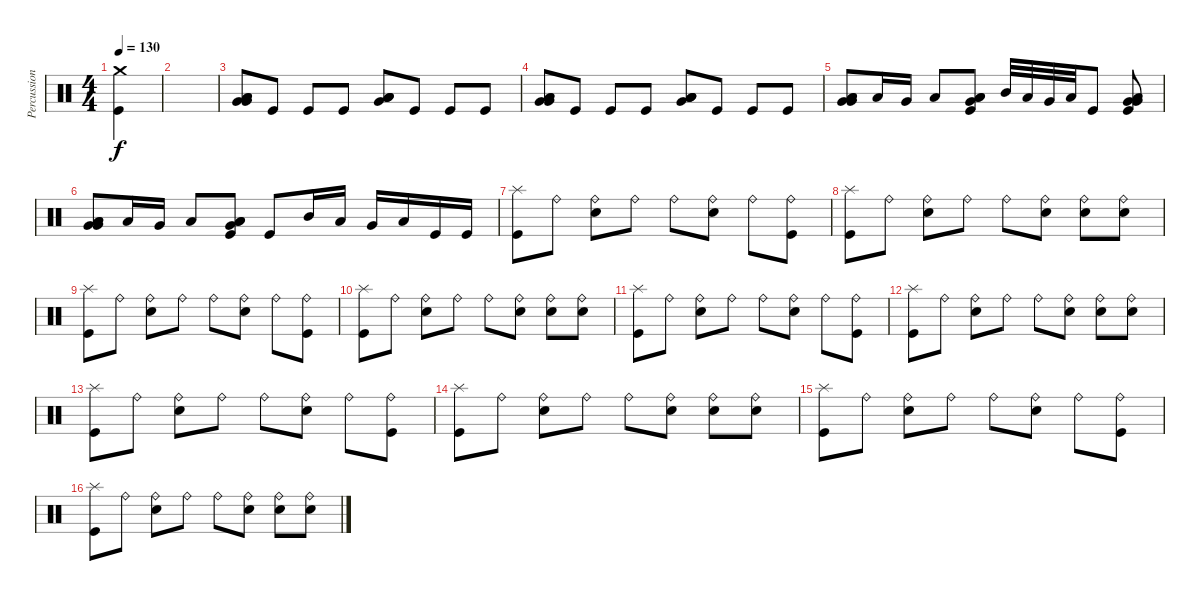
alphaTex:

\track ("Percussion" "Percussion") {instrument percussion}
\staff {score}
\articulation defaults
\ts (4 4)
\tempo 130
\clef neutral
\ks c
("Crash medium (hit)" "Kick (hit)").4{dy f} |
|
("Low Tom (hit)" "Low Tom (hit)" "Very Low Tom (hit)" "Very Low Tom (hit)").8 "Kick (hit)".8 "Kick (hit)".8 "Kick (hit)".8 ("Low Floor Tom (hit)" "Very Low Tom (hit)" "Low Tom (hit)" "Low Tom (hit)").8 "Kick (hit)".8 "Kick (hit)".8 "Kick (hit)".8 |
("Low Tom (hit)" "Low Tom (hit)" "Very Low Tom (hit)" "Very Low Tom (hit)").8 "Kick (hit)".8 "Kick (hit)".8 "Kick (hit)".8 ("Low Floor Tom (hit)" "Very Low Tom (hit)" "Low Tom (hit)" "Low Tom (hit)").8 "Kick (hit)".8 "Kick (hit)".8 "Kick (hit)".8 |
("Low Tom (hit)" "Very Low Tom (hit)" "Low Tom (hit)" "Very Low Tom (hit)").8 "Low Tom (hit)".16 "Very Low Tom (hit)".16 "Low Floor Tom (hit)".8 ("Low Tom (hit)" "Kick (hit)" "Very Low Tom (hit)" "Low Tom (hit)").8 "Mid Tom (hit)".32 "Low Tom (hit)".32 "Very Low Tom (hit)".32 "Low Floor Tom (hit)".32 "Kick (hit)".8 ("Very Low Tom (hit)" "Very Low Tom (hit)" "Low Floor Tom (hit)" "Kick (hit)").8 |
("Low Tom (hit)" "Very Low Tom (hit)" "Low Tom (hit)" "Very Low Tom (hit)").8 "Low Tom (hit)".16 "Very Low Tom (hit)".16 "Low Floor Tom (hit)".8 ("Low Tom (hit)" "Kick (hit)" "Very Low Tom (hit)" "Low Tom (hit)").8 "Kick (hit)".8 "Mid Tom (hit)".16 "Low Tom (hit)".16 "Very Low Tom (hit)".16 "Low Floor Tom (hit)".16 "Kick (hit)".16 "Kick (hit)".16 |
("Splash (hit)" "Kick (hit)").8 "Ride (bell)".8 ("Ride (bell)" "Electric Snare (hit)").8 "Ride (bell)".8 "Ride (bell)".8 ("Ride (bell)" "Electric Snare (hit)").8 "Ride (bell)".8 ("Ride (bell)" "Kick (hit)").8 |
("Splash (hit)" "Kick (hit)").8 "Ride (bell)".8 ("Ride (bell)" "Electric Snare (hit)").8 "Ride (bell)".8 "Ride (bell)".8 ("Ride (bell)" "Electric Snare (hit)").8 ("Ride (bell)" "Electric Snare (hit)").8 ("Ride (bell)" "Electric Snare (hit)").8 |
("Splash (hit)" "Kick (hit)").8 "Ride (bell)".8 ("Ride (bell)" "Electric Snare (hit)").8 "Ride (bell)".8 "Ride (bell)".8 ("Ride (bell)" "Electric Snare (hit)").8 "Ride (bell)".8 ("Ride (bell)" "Kick (hit)").8 |
("Splash (hit)" "Kick (hit)").8 "Ride (bell)".8 ("Ride (bell)" "Electric Snare (hit)").8 "Ride (bell)".8 "Ride (bell)".8 ("Ride (bell)" "Electric Snare (hit)").8 ("Ride (bell)" "Electric Snare (hit)").8 ("Ride (bell)" "Electric Snare (hit)").8 |
("Splash (hit)" "Kick (hit)").8 "Ride (bell)".8 ("Ride (bell)" "Electric Snare (hit)").8 "Ride (bell)".8 "Ride (bell)".8 ("Ride (bell)" "Electric Snare (hit)").8 "Ride (bell)".8 ("Ride (bell)" "Kick (hit)").8 |
("Splash (hit)" "Kick (hit)").8 "Ride (bell)".8 ("Ride (bell)" "Electric Snare (hit)").8 "Ride (bell)".8 "Ride (bell)".8 ("Ride (bell)" "Electric Snare (hit)").8 ("Ride (bell)" "Electric Snare (hit)").8 ("Ride (bell)" "Electric Snare (hit)").8 |
("Splash (hit)" "Kick (hit)").8 "Ride (bell)".8 ("Ride (bell)" "Electric Snare (hit)").8 "Ride (bell)".8 "Ride (bell)".8 ("Ride (bell)" "Electric Snare (hit)").8 "Ride (bell)".8 ("Ride (bell)" "Kick (hit)").8 |
("Splash (hit)" "Kick (hit)").8 "Ride (bell)".8 ("Ride (bell)" "Electric Snare (hit)").8 "Ride (bell)".8 "Ride (bell)".8 ("Ride (bell)" "Electric Snare (hit)").8 ("Ride (bell)" "Electric Snare (hit)").8 ("Ride (bell)" "Electric Snare (hit)").8 |
("Splash (hit)" "Kick (hit)").8 "Ride (bell)".8 ("Ride (bell)" "Electric Snare (hit)").8 "Ride (bell)".8 "Ride (bell)".8 ("Ride (bell)" "Electric Snare (hit)").8 "Ride (bell)".8 ("Ride (bell)" "Kick (hit)").8 |
("Splash (hit)" "Kick (hit)").8 "Ride (bell)".8 ("Ride (bell)" "Electric Snare (hit)").8 "Ride (bell)".8 "Ride (bell)".8 ("Ride (bell)" "Electric Snare (hit)").8 ("Ride (bell)" "Electric Snare (hit)").8 ("Ride (bell)" "Electric Snare (hit)").8
